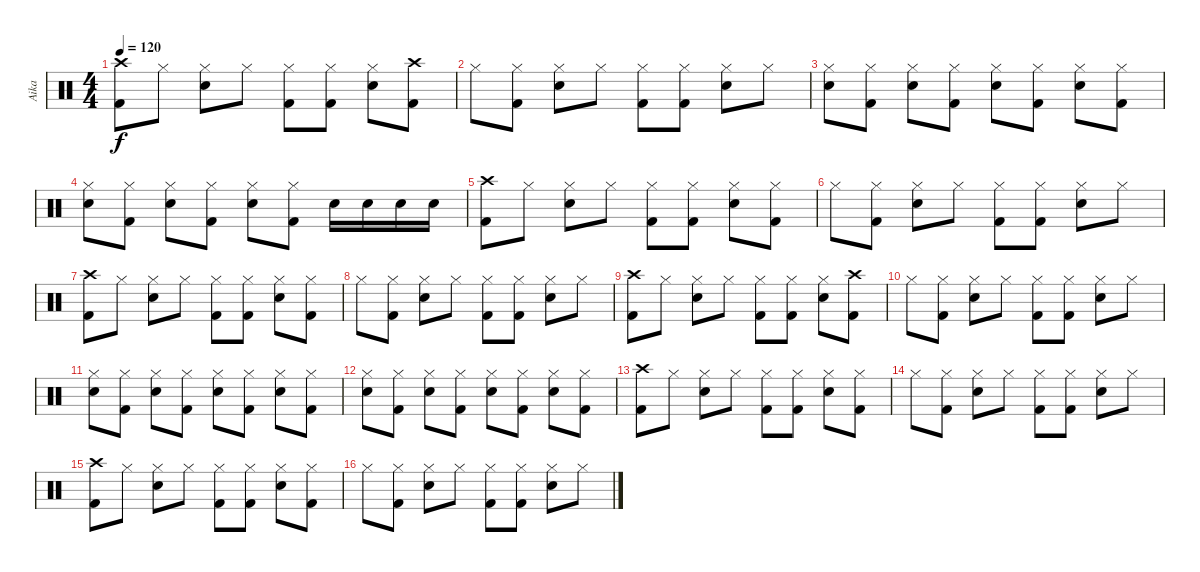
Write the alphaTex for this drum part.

\track ("Aika" "Aika") {instrument percussion}
\staff {score}
\articulation defaults
\ts (4 4)
\tempo 120
\clef neutral
\ks c
("Crash high (hit)" "Kick (hit) 2").8{dy f} "Hi-Hat (closed)".8 ("Hi-Hat (closed)" "Snare (hit) 2").8 "Hi-Hat (closed)".8 ("Hi-Hat (closed)" "Kick (hit) 2").8 ("Hi-Hat (closed)" "Kick (hit) 2").8 ("Hi-Hat (closed)" "Snare (hit) 2").8 ("Crash high (hit)" "Kick (hit) 2").8 |
"Hi-Hat (closed)".8 ("Hi-Hat (closed)" "Kick (hit) 2").8 ("Hi-Hat (closed)" "Snare (hit) 2").8 "Hi-Hat (closed)".8 ("Hi-Hat (closed)" "Kick (hit) 2").8 ("Hi-Hat (closed)" "Kick (hit) 2").8 ("Hi-Hat (closed)" "Snare (hit) 2").8 "Hi-Hat (closed)".8 |
("Hi-Hat (closed)" "Snare (hit) 2").8 ("Hi-Hat (closed)" "Kick (hit) 2").8 ("Hi-Hat (closed)" "Snare (hit) 2").8 ("Hi-Hat (closed)" "Kick (hit) 2").8 ("Hi-Hat (closed)" "Snare (hit) 2").8 ("Hi-Hat (closed)" "Kick (hit) 2").8 ("Hi-Hat (closed)" "Snare (hit) 2").8 ("Hi-Hat (closed)" "Kick (hit) 2").8 |
("Hi-Hat (closed)" "Snare (hit) 2").8 ("Hi-Hat (closed)" "Kick (hit) 2").8 ("Hi-Hat (closed)" "Snare (hit) 2").8 ("Hi-Hat (closed)" "Kick (hit) 2").8 ("Hi-Hat (closed)" "Snare (hit) 2").8 ("Hi-Hat (closed)" "Kick (hit) 2").8 "Snare (hit) 2".16 "Snare (hit) 2".16 "Snare (hit) 2".16 "Snare (hit) 2".16 |
("Crash high (hit)" "Kick (hit) 2").8 "Hi-Hat (closed)".8 ("Hi-Hat (closed)" "Snare (hit) 2").8 "Hi-Hat (closed)".8 ("Hi-Hat (closed)" "Kick (hit) 2").8 ("Hi-Hat (closed)" "Kick (hit) 2").8 ("Hi-Hat (closed)" "Snare (hit) 2").8 ("Hi-Hat (closed)" "Kick (hit) 2").8 |
"Hi-Hat (closed)".8 ("Hi-Hat (closed)" "Kick (hit) 2").8 ("Hi-Hat (closed)" "Snare (hit) 2").8 "Hi-Hat (closed)".8 ("Hi-Hat (closed)" "Kick (hit) 2").8 ("Hi-Hat (closed)" "Kick (hit) 2").8 ("Hi-Hat (closed)" "Snare (hit) 2").8 "Hi-Hat (closed)".8 |
("Crash high (hit)" "Kick (hit) 2").8 "Hi-Hat (closed)".8 ("Hi-Hat (closed)" "Snare (hit) 2").8 "Hi-Hat (closed)".8 ("Hi-Hat (closed)" "Kick (hit) 2").8 ("Hi-Hat (closed)" "Kick (hit) 2").8 ("Hi-Hat (closed)" "Snare (hit) 2").8 ("Hi-Hat (closed)" "Kick (hit) 2").8 |
"Hi-Hat (closed)".8 ("Hi-Hat (closed)" "Kick (hit) 2").8 ("Hi-Hat (closed)" "Snare (hit) 2").8 "Hi-Hat (closed)".8 ("Hi-Hat (closed)" "Kick (hit) 2").8 ("Hi-Hat (closed)" "Kick (hit) 2").8 ("Hi-Hat (closed)" "Snare (hit) 2").8 "Hi-Hat (closed)".8 |
("Crash high (hit)" "Kick (hit) 2").8 "Hi-Hat (closed)".8 ("Hi-Hat (closed)" "Snare (hit) 2").8 "Hi-Hat (closed)".8 ("Hi-Hat (closed)" "Kick (hit) 2").8 ("Hi-Hat (closed)" "Kick (hit) 2").8 ("Hi-Hat (closed)" "Snare (hit) 2").8 ("Crash high (hit)" "Kick (hit) 2").8 |
"Hi-Hat (closed)".8 ("Hi-Hat (closed)" "Kick (hit) 2").8 ("Hi-Hat (closed)" "Snare (hit) 2").8 "Hi-Hat (closed)".8 ("Hi-Hat (closed)" "Kick (hit) 2").8 ("Hi-Hat (closed)" "Kick (hit) 2").8 ("Hi-Hat (closed)" "Snare (hit) 2").8 "Hi-Hat (closed)".8 |
("Hi-Hat (closed)" "Snare (hit) 2").8 ("Hi-Hat (closed)" "Kick (hit) 2").8 ("Hi-Hat (closed)" "Snare (hit) 2").8 ("Hi-Hat (closed)" "Kick (hit) 2").8 ("Hi-Hat (closed)" "Snare (hit) 2").8 ("Hi-Hat (closed)" "Kick (hit) 2").8 ("Hi-Hat (closed)" "Snare (hit) 2").8 ("Hi-Hat (closed)" "Kick (hit) 2").8 |
("Hi-Hat (closed)" "Snare (hit) 2").8 ("Hi-Hat (closed)" "Kick (hit) 2").8 ("Hi-Hat (closed)" "Snare (hit) 2").8 ("Hi-Hat (closed)" "Kick (hit) 2").8 ("Hi-Hat (closed)" "Snare (hit) 2").8 ("Hi-Hat (closed)" "Kick (hit) 2").8 ("Hi-Hat (closed)" "Snare (hit) 2").8 ("Hi-Hat (closed)" "Kick (hit) 2").8 |
("Crash high (hit)" "Kick (hit) 2").8 "Hi-Hat (closed)".8 ("Hi-Hat (closed)" "Snare (hit) 2").8 "Hi-Hat (closed)".8 ("Hi-Hat (closed)" "Kick (hit) 2").8 ("Hi-Hat (closed)" "Kick (hit) 2").8 ("Hi-Hat (closed)" "Snare (hit) 2").8 ("Hi-Hat (closed)" "Kick (hit) 2").8 |
"Hi-Hat (closed)".8 ("Hi-Hat (closed)" "Kick (hit) 2").8 ("Hi-Hat (closed)" "Snare (hit) 2").8 "Hi-Hat (closed)".8 ("Hi-Hat (closed)" "Kick (hit) 2").8 ("Hi-Hat (closed)" "Kick (hit) 2").8 ("Hi-Hat (closed)" "Snare (hit) 2").8 "Hi-Hat (closed)".8 |
("Crash high (hit)" "Kick (hit) 2").8 "Hi-Hat (closed)".8 ("Hi-Hat (closed)" "Snare (hit) 2").8 "Hi-Hat (closed)".8 ("Hi-Hat (closed)" "Kick (hit) 2").8 ("Hi-Hat (closed)" "Kick (hit) 2").8 ("Hi-Hat (closed)" "Snare (hit) 2").8 ("Hi-Hat (closed)" "Kick (hit) 2").8 |
"Hi-Hat (closed)".8 ("Hi-Hat (closed)" "Kick (hit) 2").8 ("Hi-Hat (closed)" "Snare (hit) 2").8 "Hi-Hat (closed)".8 ("Hi-Hat (closed)" "Kick (hit) 2").8 ("Hi-Hat (closed)" "Kick (hit) 2").8 ("Hi-Hat (closed)" "Snare (hit) 2").8 "Hi-Hat (closed)".8
